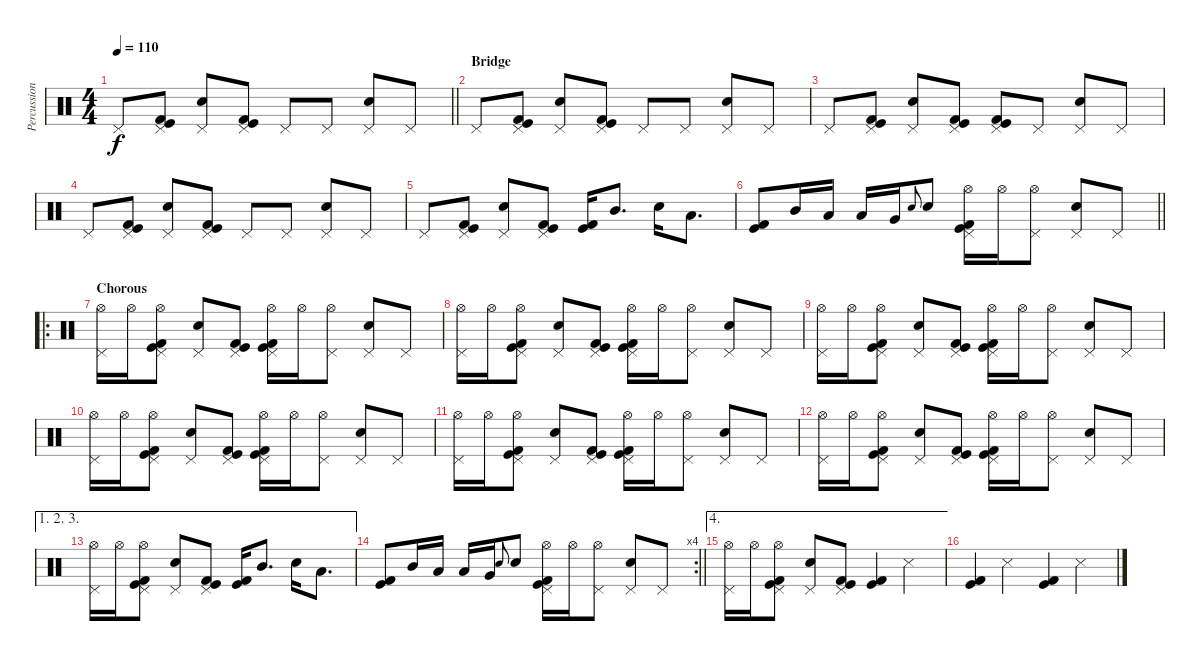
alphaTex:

\track ("Percussion" "Percussion") {instrument percussion}
\staff {score}
\articulation defaults
\ts (4 4)
\tempo 110
\clef neutral
\barLineRight lightlight
\ks c "Pedal Hi-Hat (hit)".8{dy f}
("Pedal Hi-Hat (hit)" "Kick (hit)" "Kick (hit) 2").8 ("Pedal Hi-Hat (hit)" "Electric Snare (hit)").8 ("Pedal Hi-Hat (hit)" "Kick (hit)" "Kick (hit) 2").8 "Pedal Hi-Hat (hit)".8 "Pedal Hi-Hat (hit)".8 ("Pedal Hi-Hat (hit)" "Electric Snare (hit)").8 "Pedal Hi-Hat (hit)".8 |
\section ("" "Bridge")
"Pedal Hi-Hat (hit)".8 ("Pedal Hi-Hat (hit)" "Kick (hit)" "Kick (hit) 2").8 ("Pedal Hi-Hat (hit)" "Electric Snare (hit)").8 ("Pedal Hi-Hat (hit)" "Kick (hit)" "Kick (hit) 2").8 "Pedal Hi-Hat (hit)".8 "Pedal Hi-Hat (hit)".8 ("Pedal Hi-Hat (hit)" "Electric Snare (hit)").8 "Pedal Hi-Hat (hit)".8 |
"Pedal Hi-Hat (hit)".8 ("Pedal Hi-Hat (hit)" "Kick (hit)" "Kick (hit) 2").8 ("Pedal Hi-Hat (hit)" "Electric Snare (hit)").8 ("Pedal Hi-Hat (hit)" "Kick (hit)" "Kick (hit) 2").8 ("Pedal Hi-Hat (hit)" "Kick (hit)" "Kick (hit) 2").8 "Pedal Hi-Hat (hit)".8 ("Pedal Hi-Hat (hit)" "Electric Snare (hit)").8 "Pedal Hi-Hat (hit)".8 |
"Pedal Hi-Hat (hit)".8 ("Pedal Hi-Hat (hit)" "Kick (hit)" "Kick (hit) 2").8 ("Pedal Hi-Hat (hit)" "Electric Snare (hit)").8 ("Pedal Hi-Hat (hit)" "Kick (hit)" "Kick (hit) 2").8 "Pedal Hi-Hat (hit)".8 "Pedal Hi-Hat (hit)".8 ("Pedal Hi-Hat (hit)" "Electric Snare (hit)").8 "Pedal Hi-Hat (hit)".8 |
"Pedal Hi-Hat (hit)".8 ("Pedal Hi-Hat (hit)" "Kick (hit)" "Kick (hit) 2").8 ("Pedal Hi-Hat (hit)" "Electric Snare (hit)").8 ("Pedal Hi-Hat (hit)" "Kick (hit)" "Kick (hit) 2").8 ("Kick (hit)" "Kick (hit) 2").16 "Mid Tom (hit)".8{d} "Electric Snare (hit)".16 "Low Tom (hit)".8{d} |
\barLineRight lightlight
("Kick (hit)" "Kick (hit) 2").8 "Mid Tom (hit)".16 "Low Tom (hit)".16 "Low Tom (hit)".16 "Very Low Tom (hit)".16 "Electric Snare (hit)".8{gr onbeat} "Electric Snare (hit)".8 ("Hi-Hat (open)" "Pedal Hi-Hat (hit)" "Kick (hit)" "Kick (hit) 2").16 "Hi-Hat (open)".16 ("Hi-Hat (open)" "Pedal Hi-Hat (hit)").8 ("Pedal Hi-Hat (hit)" "Electric Snare (hit)").8 "Pedal Hi-Hat (hit)".8 |
\ro
\section ("" "Chorous ")
("Hi-Hat (open)" "Pedal Hi-Hat (hit)").16 "Hi-Hat (open)".16 ("Hi-Hat (open)" "Pedal Hi-Hat (hit)" "Kick (hit)" "Kick (hit) 2").8 ("Pedal Hi-Hat (hit)" "Electric Snare (hit)").8 ("Pedal Hi-Hat (hit)" "Kick (hit)" "Kick (hit) 2").8 ("Hi-Hat (open)" "Pedal Hi-Hat (hit)" "Kick (hit)" "Kick (hit) 2").16 "Hi-Hat (open)".16 ("Hi-Hat (open)" "Pedal Hi-Hat (hit)").8 ("Pedal Hi-Hat (hit)" "Electric Snare (hit)").8 "Pedal Hi-Hat (hit)".8 |
("Hi-Hat (open)" "Pedal Hi-Hat (hit)").16 "Hi-Hat (open)".16 ("Hi-Hat (open)" "Pedal Hi-Hat (hit)" "Kick (hit)" "Kick (hit) 2").8 ("Pedal Hi-Hat (hit)" "Electric Snare (hit)").8 ("Pedal Hi-Hat (hit)" "Kick (hit)" "Kick (hit) 2").8 ("Hi-Hat (open)" "Pedal Hi-Hat (hit)" "Kick (hit)" "Kick (hit) 2").16 "Hi-Hat (open)".16 ("Hi-Hat (open)" "Pedal Hi-Hat (hit)").8 ("Pedal Hi-Hat (hit)" "Electric Snare (hit)").8 "Pedal Hi-Hat (hit)".8 |
("Hi-Hat (open)" "Pedal Hi-Hat (hit)").16 "Hi-Hat (open)".16 ("Hi-Hat (open)" "Pedal Hi-Hat (hit)" "Kick (hit)" "Kick (hit) 2").8 ("Pedal Hi-Hat (hit)" "Electric Snare (hit)").8 ("Pedal Hi-Hat (hit)" "Kick (hit)" "Kick (hit) 2").8 ("Hi-Hat (open)" "Pedal Hi-Hat (hit)" "Kick (hit)" "Kick (hit) 2").16 "Hi-Hat (open)".16 ("Hi-Hat (open)" "Pedal Hi-Hat (hit)").8 ("Pedal Hi-Hat (hit)" "Electric Snare (hit)").8 "Pedal Hi-Hat (hit)".8 |
("Hi-Hat (open)" "Pedal Hi-Hat (hit)").16 "Hi-Hat (open)".16 ("Hi-Hat (open)" "Pedal Hi-Hat (hit)" "Kick (hit)" "Kick (hit) 2").8 ("Pedal Hi-Hat (hit)" "Electric Snare (hit)").8 ("Pedal Hi-Hat (hit)" "Kick (hit)" "Kick (hit) 2").8 ("Hi-Hat (open)" "Pedal Hi-Hat (hit)" "Kick (hit)" "Kick (hit) 2").16 "Hi-Hat (open)".16 ("Hi-Hat (open)" "Pedal Hi-Hat (hit)").8 ("Pedal Hi-Hat (hit)" "Electric Snare (hit)").8 "Pedal Hi-Hat (hit)".8 |
("Hi-Hat (open)" "Pedal Hi-Hat (hit)").16 "Hi-Hat (open)".16 ("Hi-Hat (open)" "Pedal Hi-Hat (hit)" "Kick (hit)" "Kick (hit) 2").8 ("Pedal Hi-Hat (hit)" "Electric Snare (hit)").8 ("Pedal Hi-Hat (hit)" "Kick (hit)" "Kick (hit) 2").8 ("Hi-Hat (open)" "Pedal Hi-Hat (hit)" "Kick (hit)" "Kick (hit) 2").16 "Hi-Hat (open)".16 ("Hi-Hat (open)" "Pedal Hi-Hat (hit)").8 ("Pedal Hi-Hat (hit)" "Electric Snare (hit)").8 "Pedal Hi-Hat (hit)".8 |
("Hi-Hat (open)" "Pedal Hi-Hat (hit)").16 "Hi-Hat (open)".16 ("Hi-Hat (open)" "Pedal Hi-Hat (hit)" "Kick (hit)" "Kick (hit) 2").8 ("Pedal Hi-Hat (hit)" "Electric Snare (hit)").8 ("Pedal Hi-Hat (hit)" "Kick (hit)" "Kick (hit) 2").8 ("Hi-Hat (open)" "Pedal Hi-Hat (hit)" "Kick (hit)" "Kick (hit) 2").16 "Hi-Hat (open)".16 ("Hi-Hat (open)" "Pedal Hi-Hat (hit)").8 ("Pedal Hi-Hat (hit)" "Electric Snare (hit)").8 "Pedal Hi-Hat (hit)".8 |
\ae (1 2 3)
("Hi-Hat (open)" "Pedal Hi-Hat (hit)").16 "Hi-Hat (open)".16 ("Hi-Hat (open)" "Pedal Hi-Hat (hit)" "Kick (hit)" "Kick (hit) 2").8 ("Pedal Hi-Hat (hit)" "Electric Snare (hit)").8 ("Pedal Hi-Hat (hit)" "Kick (hit)" "Kick (hit) 2").8 ("Kick (hit)" "Kick (hit) 2").16 "Mid Tom (hit)".8{d} "Electric Snare (hit)".16 "Low Tom (hit)".8{d} |
\rc 4
\barLineRight lightlight
("Kick (hit)" "Kick (hit) 2").8 "Mid Tom (hit)".16 "Low Tom (hit)".16 "Low Tom (hit)".16 "Very Low Tom (hit)".16 "Electric Snare (hit)".8{gr onbeat} "Electric Snare (hit)".8 ("Hi-Hat (open)" "Pedal Hi-Hat (hit)" "Kick (hit)" "Kick (hit) 2").16 "Hi-Hat (open)".16 ("Hi-Hat (open)" "Pedal Hi-Hat (hit)").8 ("Pedal Hi-Hat (hit)" "Electric Snare (hit)").8 "Pedal Hi-Hat (hit)".8 |
\ae 4
("Hi-Hat (open)" "Pedal Hi-Hat (hit)").16 "Hi-Hat (open)".16 ("Hi-Hat (open)" "Pedal Hi-Hat (hit)" "Kick (hit)" "Kick (hit) 2").8 ("Pedal Hi-Hat (hit)" "Electric Snare (hit)").8 ("Pedal Hi-Hat (hit)" "Kick (hit)" "Kick (hit) 2").8 ("Kick (hit)" "Kick (hit) 2").4 "Snare (side stick) 3".4 |
("Kick (hit)" "Kick (hit) 2").4 "Snare (side stick) 3".4 ("Kick (hit)" "Kick (hit) 2").4 "Snare (side stick) 3".4
